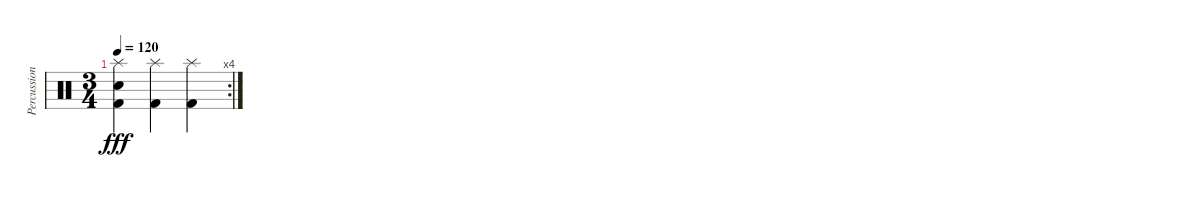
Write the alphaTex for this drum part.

\track ("Percussion" "Percussion") {instrument percussion}
\staff {score}
\articulation defaults
\rc 4
\ts (3 4)
\tempo 120
\clef neutral
\ks c
("Splash (hit)" "Electric Snare (hit)" "Kick (hit) 2").4{dy fff} ("Splash (hit)" "Kick (hit) 2").4 ("Splash (hit)" "Kick (hit) 2").4
